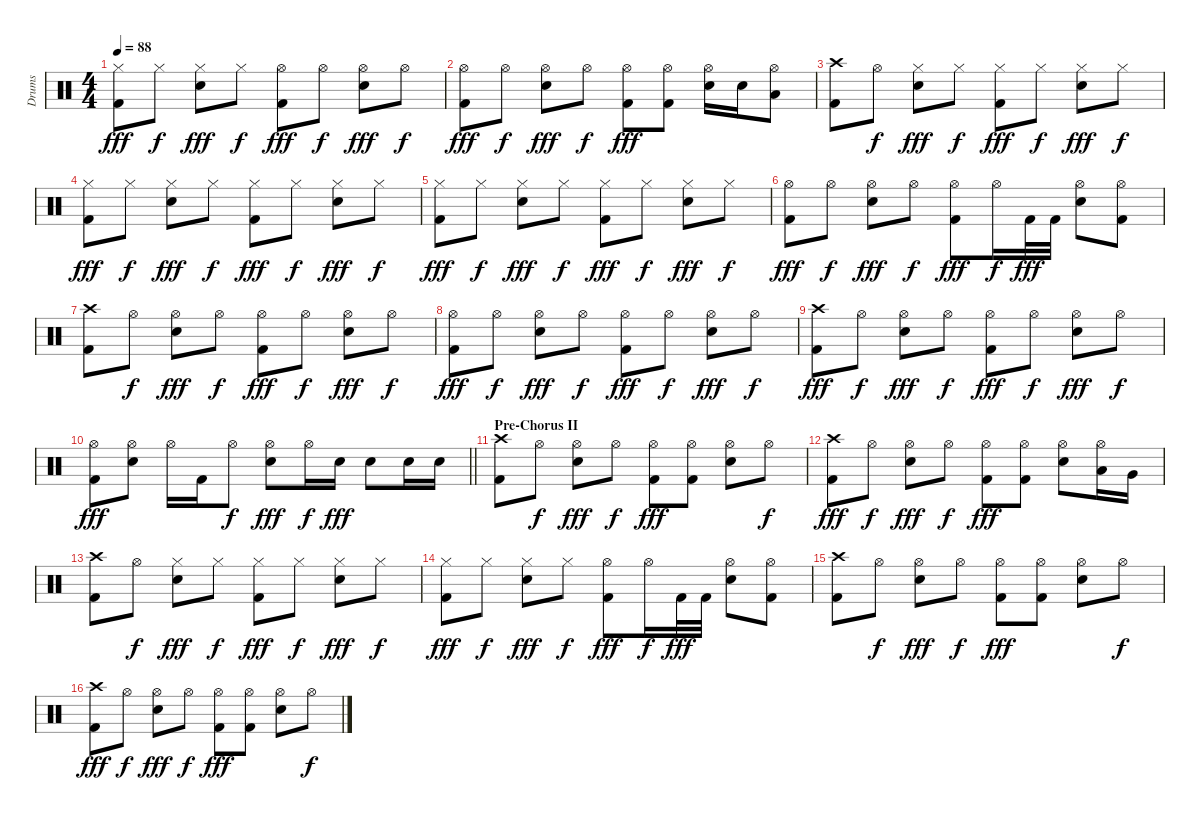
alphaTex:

\track ("Drums" "Drums") {instrument percussion}
\staff {score}
\articulation defaults
\ts (4 4)
\tempo 88
\clef neutral
\ks c
("Hi-Hat (closed)" "Kick (hit) 2").8{dy fff} "Hi-Hat (closed)".8{dy f} ("Hi-Hat (closed)" "Snare (hit) 2").8{dy fff} "Hi-Hat (closed)".8{dy f} ("Hi-Hat (open)" "Kick (hit) 2").8{dy fff} "Hi-Hat (open)".8{dy f} ("Hi-Hat (open)" "Snare (hit) 2").8{dy fff} "Hi-Hat (open)".8{dy f} |
("Hi-Hat (open)" "Kick (hit) 2").8{dy fff} "Hi-Hat (open)".8{dy f} ("Hi-Hat (open)" "Snare (hit) 2").8{dy fff} "Hi-Hat (open)".8{dy f} ("Hi-Hat (open)" "Kick (hit) 2").8{dy fff} ("Hi-Hat (open)" "Kick (hit) 2").8 ("Hi-Hat (open)" "Snare (hit) 2").16 "Snare (hit) 2".16 ("Hi-Hat (open)" "Low Tom (hit)").8 |
("Crash high (hit)" "Kick (hit) 2").8 "Hi-Hat (open)".8{dy f} ("Hi-Hat (closed)" "Snare (hit) 2").8{dy fff} "Hi-Hat (closed)".8{dy f} ("Hi-Hat (closed)" "Kick (hit) 2").8{dy fff} "Hi-Hat (closed)".8{dy f} ("Hi-Hat (closed)" "Snare (hit) 2").8{dy fff} "Hi-Hat (closed)".8{dy f} |
("Hi-Hat (closed)" "Kick (hit) 2").8{dy fff} "Hi-Hat (closed)".8{dy f} ("Hi-Hat (closed)" "Snare (hit) 2").8{dy fff} "Hi-Hat (closed)".8{dy f} ("Hi-Hat (closed)" "Kick (hit) 2").8{dy fff} "Hi-Hat (closed)".8{dy f} ("Hi-Hat (closed)" "Snare (hit) 2").8{dy fff} "Hi-Hat (closed)".8{dy f} |
("Hi-Hat (closed)" "Kick (hit) 2").8{dy fff} "Hi-Hat (closed)".8{dy f} ("Hi-Hat (closed)" "Snare (hit) 2").8{dy fff} "Hi-Hat (closed)".8{dy f} ("Hi-Hat (closed)" "Kick (hit) 2").8{dy fff} "Hi-Hat (closed)".8{dy f} ("Hi-Hat (closed)" "Snare (hit) 2").8{dy fff} "Hi-Hat (closed)".8{dy f} |
("Hi-Hat (open)" "Kick (hit) 2").8{dy fff} "Hi-Hat (open)".8{dy f} ("Hi-Hat (open)" "Snare (hit) 2").8{dy fff} "Hi-Hat (open)".8{dy f} ("Hi-Hat (open)" "Kick (hit) 2").8{dy fff} "Hi-Hat (open)".16{dy f} "Kick (hit) 2".32{dy fff} "Kick (hit) 2".32 ("Hi-Hat (open)" "Snare (hit) 2").8 ("Hi-Hat (open)" "Kick (hit) 2").8 |
("Crash high (hit)" "Kick (hit) 2").8 "Hi-Hat (open)".8{dy f} ("Hi-Hat (open)" "Snare (hit) 2").8{dy fff} "Hi-Hat (open)".8{dy f} ("Hi-Hat (open)" "Kick (hit) 2").8{dy fff} "Hi-Hat (open)".8{dy f} ("Hi-Hat (open)" "Snare (hit) 2").8{dy fff} "Hi-Hat (open)".8{dy f} |
("Hi-Hat (open)" "Kick (hit) 2").8{dy fff} "Hi-Hat (open)".8{dy f} ("Hi-Hat (open)" "Snare (hit) 2").8{dy fff} "Hi-Hat (open)".8{dy f} ("Hi-Hat (open)" "Kick (hit) 2").8{dy fff} "Hi-Hat (open)".8{dy f} ("Hi-Hat (open)" "Snare (hit) 2").8{dy fff} "Hi-Hat (open)".8{dy f} |
("Crash high (hit)" "Kick (hit) 2").8{dy fff} "Hi-Hat (open)".8{dy f} ("Hi-Hat (open)" "Snare (hit) 2").8{dy fff} "Hi-Hat (open)".8{dy f} ("Hi-Hat (open)" "Kick (hit) 2").8{dy fff} "Hi-Hat (open)".8{dy f} ("Hi-Hat (open)" "Snare (hit) 2").8{dy fff} "Hi-Hat (open)".8{dy f} |
\barLineRight lightlight
("Hi-Hat (open)" "Kick (hit) 2").8{dy fff} ("Hi-Hat (open)" "Snare (hit) 2").8 "Hi-Hat (open)".16 "Kick (hit) 2".16 "Hi-Hat (open)".8{dy f} ("Hi-Hat (open)" "Snare (hit) 2").8{dy fff} "Hi-Hat (open)".16{dy f} "Snare (hit) 2".16{dy fff} "Snare (hit) 2".8 "Snare (hit) 2".16 "Snare (hit) 2".16 |
\section ("" "Pre-Chorus II")
("Crash high (hit)" "Kick (hit) 2").8 "Hi-Hat (open)".8{dy f} ("Hi-Hat (open)" "Snare (hit) 2").8{dy fff} "Hi-Hat (open)".8{dy f} ("Hi-Hat (open)" "Kick (hit) 2").8{dy fff} ("Hi-Hat (open)" "Kick (hit) 2").8 ("Hi-Hat (open)" "Snare (hit) 2").8 "Hi-Hat (open)".8{dy f} |
("Crash high (hit)" "Kick (hit) 2").8{dy fff} "Hi-Hat (open)".8{dy f} ("Hi-Hat (open)" "Snare (hit) 2").8{dy fff} "Hi-Hat (open)".8{dy f} ("Hi-Hat (open)" "Kick (hit) 2").8{dy fff} ("Hi-Hat (open)" "Kick (hit) 2").8 ("Hi-Hat (open)" "Snare (hit) 2").8 ("Hi-Hat (open)" "Low Tom (hit)").16 "Very Low Tom (hit)".16 |
("Crash high (hit)" "Kick (hit) 2").8 "Hi-Hat (open)".8{dy f} ("Hi-Hat (closed)" "Snare (hit) 2").8{dy fff} "Hi-Hat (closed)".8{dy f} ("Hi-Hat (closed)" "Kick (hit) 2").8{dy fff} "Hi-Hat (closed)".8{dy f} ("Hi-Hat (closed)" "Snare (hit) 2").8{dy fff} "Hi-Hat (closed)".8{dy f} |
("Hi-Hat (closed)" "Kick (hit) 2").8{dy fff} "Hi-Hat (closed)".8{dy f} ("Hi-Hat (closed)" "Snare (hit) 2").8{dy fff} "Hi-Hat (closed)".8{dy f} ("Hi-Hat (open)" "Kick (hit) 2").8{dy fff} "Hi-Hat (open)".16{dy f} "Kick (hit) 2".32{dy fff} "Kick (hit) 2".32 ("Hi-Hat (open)" "Snare (hit) 2").8 ("Hi-Hat (open)" "Kick (hit) 2").8 |
("Crash high (hit)" "Kick (hit) 2").8 "Hi-Hat (open)".8{dy f} ("Hi-Hat (open)" "Snare (hit) 2").8{dy fff} "Hi-Hat (open)".8{dy f} ("Hi-Hat (open)" "Kick (hit) 2").8{dy fff} ("Hi-Hat (open)" "Kick (hit) 2").8 ("Hi-Hat (open)" "Snare (hit) 2").8 "Hi-Hat (open)".8{dy f} |
("Crash high (hit)" "Kick (hit) 2").8{dy fff} "Hi-Hat (open)".8{dy f} ("Hi-Hat (open)" "Snare (hit) 2").8{dy fff} "Hi-Hat (open)".8{dy f} ("Hi-Hat (open)" "Kick (hit) 2").8{dy fff} ("Hi-Hat (open)" "Kick (hit) 2").8 ("Hi-Hat (open)" "Snare (hit) 2").8 "Hi-Hat (open)".8{dy f}
